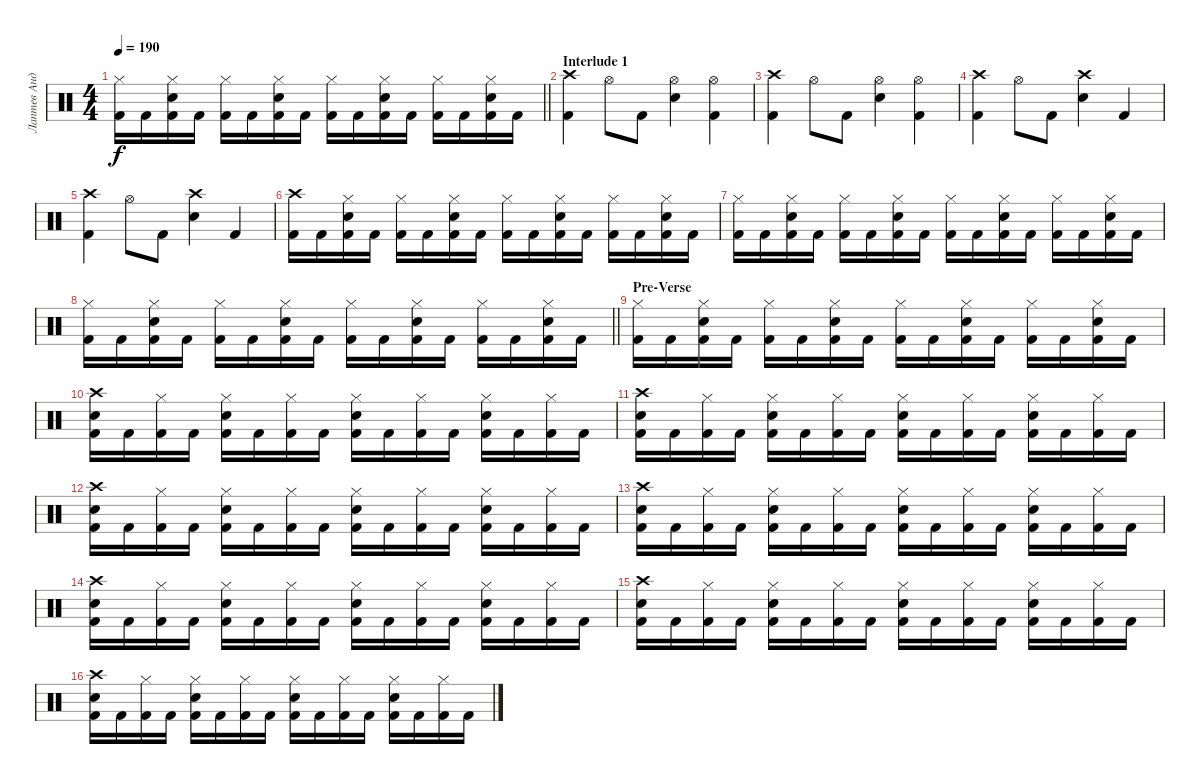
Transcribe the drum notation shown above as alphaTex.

\track ("Лаптев Андрей" "Лаптев Анд") {instrument percussion}
\staff {score}
\articulation defaults
\ts (4 4)
\tempo 190
\clef neutral
\barLineRight lightlight
\ks c
("Hi-Hat (closed)" "Kick (hit) 2").16{dy f} "Kick (hit) 2".16 ("Hi-Hat (closed)" "Electric Snare (hit)" "Kick (hit) 2").16 "Kick (hit) 2".16 ("Hi-Hat (closed)" "Kick (hit) 2").16 "Kick (hit) 2".16 ("Hi-Hat (closed)" "Electric Snare (hit)" "Kick (hit) 2").16 "Kick (hit) 2".16 ("Hi-Hat (closed)" "Kick (hit) 2").16 "Kick (hit) 2".16 ("Hi-Hat (closed)" "Electric Snare (hit)" "Kick (hit) 2").16 "Kick (hit) 2".16 ("Hi-Hat (closed)" "Kick (hit) 2").16 "Kick (hit) 2".16 ("Hi-Hat (closed)" "Electric Snare (hit)" "Kick (hit) 2").16 "Kick (hit) 2".16 |
\section ("" "Interlude 1")
("Crash high (hit)" "Kick (hit) 2").4 "Hi-Hat (open)".8 "Kick (hit) 2".8 ("Snare (hit) 2" "Hi-Hat (open)").4 ("Hi-Hat (open)" "Kick (hit) 2").4 |
("Crash high (hit)" "Kick (hit) 2").4 "Hi-Hat (open)".8 "Kick (hit) 2".8 ("Snare (hit) 2" "Hi-Hat (open)").4 ("Hi-Hat (open)" "Kick (hit) 2").4 |
("Crash high (hit)" "Kick (hit) 2").4 "Hi-Hat (open)".8 "Kick (hit) 2".8 ("Snare (hit) 2" "Crash high (hit)").4 "Kick (hit) 2".4 |
("Crash high (hit)" "Kick (hit) 2").4 "Hi-Hat (open)".8 "Kick (hit) 2".8 ("Snare (hit) 2" "Crash high (hit)").4 "Kick (hit) 2".4 |
("Crash high (hit)" "Kick (hit) 2").16 "Kick (hit) 2".16 ("Hi-Hat (closed)" "Electric Snare (hit)" "Kick (hit) 2").16 "Kick (hit) 2".16 ("Hi-Hat (closed)" "Kick (hit) 2").16 "Kick (hit) 2".16 ("Electric Snare (hit)" "Hi-Hat (closed)" "Kick (hit) 2").16 "Kick (hit) 2".16 ("Hi-Hat (closed)" "Kick (hit) 2").16 "Kick (hit) 2".16 ("Electric Snare (hit)" "Hi-Hat (closed)" "Kick (hit) 2").16 "Kick (hit) 2".16 ("Hi-Hat (closed)" "Kick (hit) 2").16 "Kick (hit) 2".16 ("Electric Snare (hit)" "Hi-Hat (closed)" "Kick (hit) 2").16 "Kick (hit) 2".16 |
("Hi-Hat (closed)" "Kick (hit) 2").16 "Kick (hit) 2".16 ("Electric Snare (hit)" "Hi-Hat (closed)" "Kick (hit) 2").16 "Kick (hit) 2".16 ("Hi-Hat (closed)" "Kick (hit) 2").16 "Kick (hit) 2".16 ("Electric Snare (hit)" "Hi-Hat (closed)" "Kick (hit) 2").16 "Kick (hit) 2".16 ("Hi-Hat (closed)" "Kick (hit) 2").16 "Kick (hit) 2".16 ("Electric Snare (hit)" "Hi-Hat (closed)" "Kick (hit) 2").16 "Kick (hit) 2".16 ("Hi-Hat (closed)" "Kick (hit) 2").16 "Kick (hit) 2".16 ("Electric Snare (hit)" "Hi-Hat (closed)" "Kick (hit) 2").16 "Kick (hit) 2".16 |
\barLineRight lightlight
("Hi-Hat (closed)" "Kick (hit) 2").16 "Kick (hit) 2".16 ("Electric Snare (hit)" "Hi-Hat (closed)" "Kick (hit) 2").16 "Kick (hit) 2".16 ("Hi-Hat (closed)" "Kick (hit) 2").16 "Kick (hit) 2".16 ("Electric Snare (hit)" "Hi-Hat (closed)" "Kick (hit) 2").16 "Kick (hit) 2".16 ("Hi-Hat (closed)" "Kick (hit) 2").16 "Kick (hit) 2".16 ("Electric Snare (hit)" "Hi-Hat (closed)" "Kick (hit) 2").16 "Kick (hit) 2".16 ("Hi-Hat (closed)" "Kick (hit) 2").16 "Kick (hit) 2".16 ("Electric Snare (hit)" "Hi-Hat (closed)" "Kick (hit) 2").16 "Kick (hit) 2".16 |
\section ("" "Pre-Verse")
("Hi-Hat (closed)" "Kick (hit) 2").16 "Kick (hit) 2".16 ("Electric Snare (hit)" "Hi-Hat (closed)" "Kick (hit) 2").16 "Kick (hit) 2".16 ("Hi-Hat (closed)" "Kick (hit) 2").16 "Kick (hit) 2".16 ("Electric Snare (hit)" "Hi-Hat (closed)" "Kick (hit) 2").16 "Kick (hit) 2".16 ("Hi-Hat (closed)" "Kick (hit) 2").16 "Kick (hit) 2".16 ("Electric Snare (hit)" "Hi-Hat (closed)" "Kick (hit) 2").16 "Kick (hit) 2".16 ("Hi-Hat (closed)" "Kick (hit) 2").16 "Kick (hit) 2".16 ("Hi-Hat (closed)" "Electric Snare (hit)" "Kick (hit) 2").16 "Kick (hit) 2".16 |
("Electric Snare (hit)" "Crash high (hit)" "Kick (hit) 2").16 "Kick (hit) 2".16 ("Hi-Hat (closed)" "Kick (hit) 2").16 "Kick (hit) 2".16 ("Electric Snare (hit)" "Hi-Hat (closed)" "Kick (hit) 2").16 "Kick (hit) 2".16 ("Hi-Hat (closed)" "Kick (hit) 2").16 "Kick (hit) 2".16 ("Electric Snare (hit)" "Hi-Hat (closed)" "Kick (hit) 2").16 "Kick (hit) 2".16 ("Hi-Hat (closed)" "Kick (hit) 2").16 "Kick (hit) 2".16 ("Electric Snare (hit)" "Hi-Hat (closed)" "Kick (hit) 2").16 "Kick (hit) 2".16 ("Hi-Hat (closed)" "Kick (hit) 2").16 "Kick (hit) 2".16 |
("Electric Snare (hit)" "Crash high (hit)" "Kick (hit) 2").16 "Kick (hit) 2".16 ("Hi-Hat (closed)" "Kick (hit) 2").16 "Kick (hit) 2".16 ("Electric Snare (hit)" "Hi-Hat (closed)" "Kick (hit) 2").16 "Kick (hit) 2".16 ("Hi-Hat (closed)" "Kick (hit) 2").16 "Kick (hit) 2".16 ("Electric Snare (hit)" "Hi-Hat (closed)" "Kick (hit) 2").16 "Kick (hit) 2".16 ("Hi-Hat (closed)" "Kick (hit) 2").16 "Kick (hit) 2".16 ("Electric Snare (hit)" "Hi-Hat (closed)" "Kick (hit) 2").16 "Kick (hit) 2".16 ("Hi-Hat (closed)" "Kick (hit) 2").16 "Kick (hit) 2".16 |
("Electric Snare (hit)" "Crash high (hit)" "Kick (hit) 2").16 "Kick (hit) 2".16 ("Hi-Hat (closed)" "Kick (hit) 2").16 "Kick (hit) 2".16 ("Electric Snare (hit)" "Hi-Hat (closed)" "Kick (hit) 2").16 "Kick (hit) 2".16 ("Hi-Hat (closed)" "Kick (hit) 2").16 "Kick (hit) 2".16 ("Electric Snare (hit)" "Hi-Hat (closed)" "Kick (hit) 2").16 "Kick (hit) 2".16 ("Hi-Hat (closed)" "Kick (hit) 2").16 "Kick (hit) 2".16 ("Electric Snare (hit)" "Hi-Hat (closed)" "Kick (hit) 2").16 "Kick (hit) 2".16 ("Hi-Hat (closed)" "Kick (hit) 2").16 "Kick (hit) 2".16 |
("Crash high (hit)" "Electric Snare (hit)" "Kick (hit) 2").16 "Kick (hit) 2".16 ("Hi-Hat (closed)" "Kick (hit) 2").16 "Kick (hit) 2".16 ("Hi-Hat (closed)" "Electric Snare (hit)" "Kick (hit) 2").16 "Kick (hit) 2".16 ("Hi-Hat (closed)" "Kick (hit) 2").16 "Kick (hit) 2".16 ("Hi-Hat (closed)" "Electric Snare (hit)" "Kick (hit) 2").16 "Kick (hit) 2".16 ("Hi-Hat (closed)" "Kick (hit) 2").16 "Kick (hit) 2".16 ("Hi-Hat (closed)" "Electric Snare (hit)" "Kick (hit) 2").16 "Kick (hit) 2".16 ("Hi-Hat (closed)" "Kick (hit) 2").16 "Kick (hit) 2".16 |
("Crash high (hit)" "Electric Snare (hit)" "Kick (hit) 2").16 "Kick (hit) 2".16 ("Hi-Hat (closed)" "Kick (hit) 2").16 "Kick (hit) 2".16 ("Hi-Hat (closed)" "Electric Snare (hit)" "Kick (hit) 2").16 "Kick (hit) 2".16 ("Hi-Hat (closed)" "Kick (hit) 2").16 "Kick (hit) 2".16 ("Hi-Hat (closed)" "Electric Snare (hit)" "Kick (hit) 2").16 "Kick (hit) 2".16 ("Hi-Hat (closed)" "Kick (hit) 2").16 "Kick (hit) 2".16 ("Hi-Hat (closed)" "Electric Snare (hit)" "Kick (hit) 2").16 "Kick (hit) 2".16 ("Hi-Hat (closed)" "Kick (hit) 2").16 "Kick (hit) 2".16 |
("Electric Snare (hit)" "Crash high (hit)" "Kick (hit) 2").16 "Kick (hit) 2".16 ("Hi-Hat (closed)" "Kick (hit) 2").16 "Kick (hit) 2".16 ("Electric Snare (hit)" "Hi-Hat (closed)" "Kick (hit) 2").16 "Kick (hit) 2".16 ("Hi-Hat (closed)" "Kick (hit) 2").16 "Kick (hit) 2".16 ("Electric Snare (hit)" "Hi-Hat (closed)" "Kick (hit) 2").16 "Kick (hit) 2".16 ("Hi-Hat (closed)" "Kick (hit) 2").16 "Kick (hit) 2".16 ("Electric Snare (hit)" "Hi-Hat (closed)" "Kick (hit) 2").16 "Kick (hit) 2".16 ("Hi-Hat (closed)" "Kick (hit) 2").16 "Kick (hit) 2".16 |
("Electric Snare (hit)" "Crash high (hit)" "Kick (hit) 2").16 "Kick (hit) 2".16 ("Hi-Hat (closed)" "Kick (hit) 2").16 "Kick (hit) 2".16 ("Electric Snare (hit)" "Hi-Hat (closed)" "Kick (hit) 2").16 "Kick (hit) 2".16 ("Hi-Hat (closed)" "Kick (hit) 2").16 "Kick (hit) 2".16 ("Electric Snare (hit)" "Hi-Hat (closed)" "Kick (hit) 2").16 "Kick (hit) 2".16 ("Hi-Hat (closed)" "Kick (hit) 2").16 "Kick (hit) 2".16 ("Electric Snare (hit)" "Hi-Hat (closed)" "Kick (hit) 2").16 "Kick (hit) 2".16 ("Hi-Hat (closed)" "Kick (hit) 2").16 "Kick (hit) 2".16
